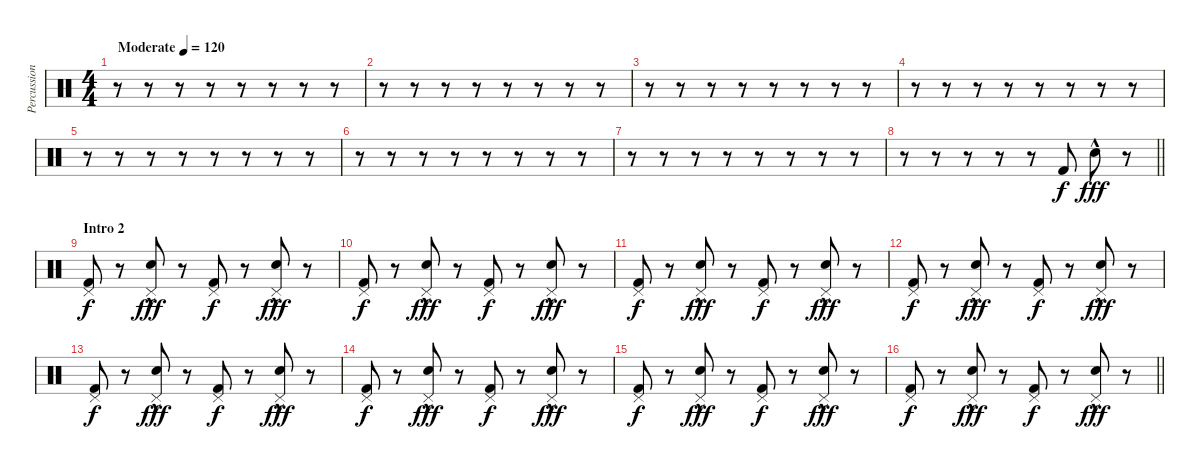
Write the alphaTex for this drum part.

\track ("Percussion" "Percussion") {instrument percussion}
\staff {score}
\articulation defaults
\ts (4 4)
\tempo (120 "Moderate")
\tempo 135
\tempo (120 "Moderate")
\clef neutral
\ks c
r.8{dy f} r.8 r.8 r.8 r.8 r.8 r.8 r.8 |
r.8 r.8 r.8 r.8 r.8 r.8 r.8 r.8 |
r.8 r.8 r.8 r.8 r.8 r.8 r.8 r.8 |
r.8 r.8 r.8 r.8 r.8 r.8 r.8 r.8 |
r.8 r.8 r.8 r.8 r.8 r.8 r.8 r.8 |
r.8 r.8 r.8 r.8 r.8 r.8 r.8 r.8 |
r.8 r.8 r.8 r.8 r.8 r.8 r.8 r.8 |
\barLineRight lightlight
r.8 r.8 r.8 r.8 r.8 "Kick (hit) 2".8 "Snare (hit) 2"{hac}.8{dy fff} r.8 |
\section ("" "Intro 2")
("Kick (hit) 2" "Pedal Hi-Hat (hit)").8{dy f} r.8 ("Snare (hit) 2"{hac} "Pedal Hi-Hat (hit)").8{dy fff} r.8 ("Kick (hit) 2" "Pedal Hi-Hat (hit)").8{dy f} r.8 ("Snare (hit) 2"{hac} "Pedal Hi-Hat (hit)").8{dy fff} r.8 |
("Kick (hit) 2" "Pedal Hi-Hat (hit)").8{dy f} r.8 ("Snare (hit) 2"{hac} "Pedal Hi-Hat (hit)").8{dy fff} r.8 ("Kick (hit) 2" "Pedal Hi-Hat (hit)").8{dy f} r.8 ("Snare (hit) 2"{hac} "Pedal Hi-Hat (hit)").8{dy fff} r.8 |
("Kick (hit) 2" "Pedal Hi-Hat (hit)").8{dy f} r.8 ("Snare (hit) 2"{hac} "Pedal Hi-Hat (hit)").8{dy fff} r.8 ("Kick (hit) 2" "Pedal Hi-Hat (hit)").8{dy f} r.8 ("Snare (hit) 2"{hac} "Pedal Hi-Hat (hit)").8{dy fff} r.8 |
("Kick (hit) 2" "Pedal Hi-Hat (hit)").8{dy f} r.8 ("Snare (hit) 2"{hac} "Pedal Hi-Hat (hit)").8{dy fff} r.8 ("Kick (hit) 2" "Pedal Hi-Hat (hit)").8{dy f} r.8 ("Snare (hit) 2"{hac} "Pedal Hi-Hat (hit)").8{dy fff} r.8 |
("Kick (hit) 2" "Pedal Hi-Hat (hit)").8{dy f} r.8 ("Snare (hit) 2"{hac} "Pedal Hi-Hat (hit)").8{dy fff} r.8 ("Kick (hit) 2" "Pedal Hi-Hat (hit)").8{dy f} r.8 ("Snare (hit) 2"{hac} "Pedal Hi-Hat (hit)").8{dy fff} r.8 |
("Kick (hit) 2" "Pedal Hi-Hat (hit)").8{dy f} r.8 ("Snare (hit) 2"{hac} "Pedal Hi-Hat (hit)").8{dy fff} r.8 ("Kick (hit) 2" "Pedal Hi-Hat (hit)").8{dy f} r.8 ("Snare (hit) 2"{hac} "Pedal Hi-Hat (hit)").8{dy fff} r.8 |
("Kick (hit) 2" "Pedal Hi-Hat (hit)").8{dy f} r.8 ("Snare (hit) 2"{hac} "Pedal Hi-Hat (hit)").8{dy fff} r.8 ("Kick (hit) 2" "Pedal Hi-Hat (hit)").8{dy f} r.8 ("Snare (hit) 2"{hac} "Pedal Hi-Hat (hit)").8{dy fff} r.8 |
\barLineRight lightlight
("Kick (hit) 2" "Pedal Hi-Hat (hit)").8{dy f} r.8 ("Snare (hit) 2"{hac} "Pedal Hi-Hat (hit)").8{dy fff} r.8 ("Kick (hit) 2" "Pedal Hi-Hat (hit)").8{dy f} r.8 ("Snare (hit) 2"{hac} "Pedal Hi-Hat (hit)").8{dy fff} r.8
